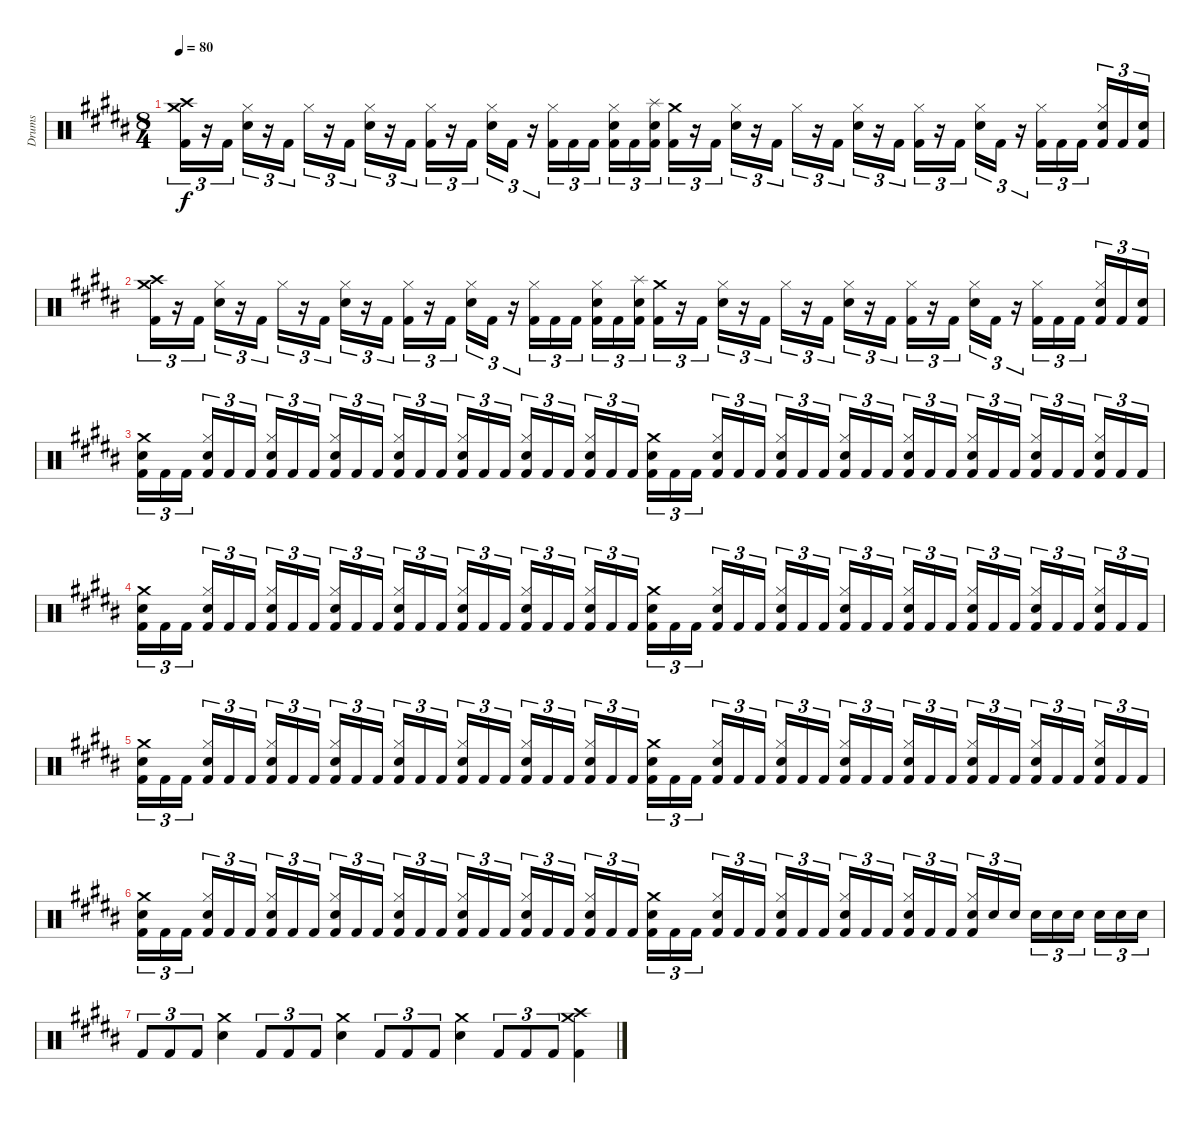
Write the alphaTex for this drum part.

\track ("Drums" "Drums") {instrument percussion}
\staff {score}
\articulation defaults
\ts (8 4)
\tempo 80
\clef neutral
\ks g#minor
("Crash medium (hit)" "Crash high (hit)" "Kick (hit) 2").16{tu (3 2) dy f} r.16{tu (3 2)} "Kick (hit) 2".16{tu (3 2)} ("Hi-Hat (closed)" "Snare (hit) 2").16{tu (3 2)} r.16{tu (3 2)} "Kick (hit) 2".16{tu (3 2)} "Hi-Hat (closed)".16{tu (3 2)} r.16{tu (3 2)} "Kick (hit) 2".16{tu (3 2)} ("Hi-Hat (closed)" "Snare (hit) 2").16{tu (3 2)} r.16{tu (3 2)} "Kick (hit) 2".16{tu (3 2)} ("Hi-Hat (closed)" "Kick (hit) 2").16{tu (3 2)} r.16{tu (3 2)} "Kick (hit) 2".16{tu (3 2)} ("Hi-Hat (closed)" "Snare (hit) 2").16{tu (3 2)} "Kick (hit) 2".16{tu (3 2)} r.16{tu (3 2)} ("Hi-Hat (closed)" "Kick (hit) 2").16{tu (3 2)} "Kick (hit) 2".16{tu (3 2)} "Kick (hit) 2".16{tu (3 2)} ("Hi-Hat (closed)" "Snare (hit) 2" "Kick (hit) 2").16{tu (3 2)} "Kick (hit) 2".16{tu (3 2)} ("Splash (hit)" "Snare (hit) 2" "Kick (hit) 2").16{tu (3 2)} ("Crash medium (hit)" "Kick (hit) 2").16{tu (3 2)} r.16{tu (3 2)} "Kick (hit) 2".16{tu (3 2)} ("Hi-Hat (closed)" "Snare (hit) 2").16{tu (3 2)} r.16{tu (3 2)} "Kick (hit) 2".16{tu (3 2)} "Hi-Hat (closed)".16{tu (3 2)} r.16{tu (3 2)} "Kick (hit) 2".16{tu (3 2)} ("Hi-Hat (closed)" "Snare (hit) 2").16{tu (3 2)} r.16{tu (3 2)} "Kick (hit) 2".16{tu (3 2)} ("Hi-Hat (closed)" "Kick (hit) 2").16{tu (3 2)} r.16{tu (3 2)} "Kick (hit) 2".16{tu (3 2)} ("Hi-Hat (closed)" "Snare (hit) 2").16{tu (3 2)} "Kick (hit) 2".16{tu (3 2)} r.16{tu (3 2)} ("Hi-Hat (closed)" "Kick (hit) 2").16{tu (3 2)} "Kick (hit) 2".16{tu (3 2)} "Kick (hit) 2".16{tu (3 2)} ("Hi-Hat (closed)" "Snare (hit) 2" "Kick (hit) 2").16{tu (3 2)} "Kick (hit) 2".16{tu (3 2)} ("Snare (hit) 2" "Kick (hit) 2").16{tu (3 2)} |
("Crash medium (hit)" "Crash high (hit)" "Kick (hit) 2").16{tu (3 2)} r.16{tu (3 2)} "Kick (hit) 2".16{tu (3 2)} ("Hi-Hat (closed)" "Snare (hit) 2").16{tu (3 2)} r.16{tu (3 2)} "Kick (hit) 2".16{tu (3 2)} "Hi-Hat (closed)".16{tu (3 2)} r.16{tu (3 2)} "Kick (hit) 2".16{tu (3 2)} ("Hi-Hat (closed)" "Snare (hit) 2").16{tu (3 2)} r.16{tu (3 2)} "Kick (hit) 2".16{tu (3 2)} ("Hi-Hat (closed)" "Kick (hit) 2").16{tu (3 2)} r.16{tu (3 2)} "Kick (hit) 2".16{tu (3 2)} ("Hi-Hat (closed)" "Snare (hit) 2").16{tu (3 2)} "Kick (hit) 2".16{tu (3 2)} r.16{tu (3 2)} ("Hi-Hat (closed)" "Kick (hit) 2").16{tu (3 2)} "Kick (hit) 2".16{tu (3 2)} "Kick (hit) 2".16{tu (3 2)} ("Hi-Hat (closed)" "Snare (hit) 2" "Kick (hit) 2").16{tu (3 2)} "Kick (hit) 2".16{tu (3 2)} ("Splash (hit)" "Snare (hit) 2" "Kick (hit) 2").16{tu (3 2)} ("Crash medium (hit)" "Kick (hit) 2").16{tu (3 2)} r.16{tu (3 2)} "Kick (hit) 2".16{tu (3 2)} ("Hi-Hat (closed)" "Snare (hit) 2").16{tu (3 2)} r.16{tu (3 2)} "Kick (hit) 2".16{tu (3 2)} "Hi-Hat (closed)".16{tu (3 2)} r.16{tu (3 2)} "Kick (hit) 2".16{tu (3 2)} ("Hi-Hat (closed)" "Snare (hit) 2").16{tu (3 2)} r.16{tu (3 2)} "Kick (hit) 2".16{tu (3 2)} ("Hi-Hat (closed)" "Kick (hit) 2").16{tu (3 2)} r.16{tu (3 2)} "Kick (hit) 2".16{tu (3 2)} ("Hi-Hat (closed)" "Snare (hit) 2").16{tu (3 2)} "Kick (hit) 2".16{tu (3 2)} r.16{tu (3 2)} ("Hi-Hat (closed)" "Kick (hit) 2").16{tu (3 2)} "Kick (hit) 2".16{tu (3 2)} "Kick (hit) 2".16{tu (3 2)} ("Hi-Hat (closed)" "Snare (hit) 2" "Kick (hit) 2").16{tu (3 2)} "Kick (hit) 2".16{tu (3 2)} ("Snare (hit) 2" "Kick (hit) 2").16{tu (3 2)} |
("Crash medium (hit)" "Snare (hit) 2" "Kick (hit) 2").16{tu (3 2)} "Kick (hit) 2".16{tu (3 2)} "Kick (hit) 2".16{tu (3 2)} ("Hi-Hat (closed)" "Snare (hit) 2" "Kick (hit) 2").16{tu (3 2)} "Kick (hit) 2".16{tu (3 2)} "Kick (hit) 2".16{tu (3 2)} ("Hi-Hat (closed)" "Snare (hit) 2" "Kick (hit) 2").16{tu (3 2)} "Kick (hit) 2".16{tu (3 2)} "Kick (hit) 2".16{tu (3 2)} ("Hi-Hat (closed)" "Snare (hit) 2" "Kick (hit) 2").16{tu (3 2)} "Kick (hit) 2".16{tu (3 2)} "Kick (hit) 2".16{tu (3 2)} ("Hi-Hat (closed)" "Snare (hit) 2" "Kick (hit) 2").16{tu (3 2)} "Kick (hit) 2".16{tu (3 2)} "Kick (hit) 2".16{tu (3 2)} ("Hi-Hat (closed)" "Snare (hit) 2" "Kick (hit) 2").16{tu (3 2)} "Kick (hit) 2".16{tu (3 2)} "Kick (hit) 2".16{tu (3 2)} ("Hi-Hat (closed)" "Snare (hit) 2" "Kick (hit) 2").16{tu (3 2)} "Kick (hit) 2".16{tu (3 2)} "Kick (hit) 2".16{tu (3 2)} ("Hi-Hat (closed)" "Snare (hit) 2" "Kick (hit) 2").16{tu (3 2)} "Kick (hit) 2".16{tu (3 2)} "Kick (hit) 2".16{tu (3 2)} ("Crash medium (hit)" "Snare (hit) 2" "Kick (hit) 2").16{tu (3 2)} "Kick (hit) 2".16{tu (3 2)} "Kick (hit) 2".16{tu (3 2)} ("Hi-Hat (closed)" "Snare (hit) 2" "Kick (hit) 2").16{tu (3 2)} "Kick (hit) 2".16{tu (3 2)} "Kick (hit) 2".16{tu (3 2)} ("Hi-Hat (closed)" "Snare (hit) 2" "Kick (hit) 2").16{tu (3 2)} "Kick (hit) 2".16{tu (3 2)} "Kick (hit) 2".16{tu (3 2)} ("Hi-Hat (closed)" "Snare (hit) 2" "Kick (hit) 2").16{tu (3 2)} "Kick (hit) 2".16{tu (3 2)} "Kick (hit) 2".16{tu (3 2)} ("Hi-Hat (closed)" "Snare (hit) 2" "Kick (hit) 2").16{tu (3 2)} "Kick (hit) 2".16{tu (3 2)} "Kick (hit) 2".16{tu (3 2)} ("Hi-Hat (closed)" "Snare (hit) 2" "Kick (hit) 2").16{tu (3 2)} "Kick (hit) 2".16{tu (3 2)} "Kick (hit) 2".16{tu (3 2)} ("Hi-Hat (closed)" "Snare (hit) 2" "Kick (hit) 2").16{tu (3 2)} "Kick (hit) 2".16{tu (3 2)} "Kick (hit) 2".16{tu (3 2)} ("Hi-Hat (closed)" "Snare (hit) 2" "Kick (hit) 2").16{tu (3 2)} "Kick (hit) 2".16{tu (3 2)} "Kick (hit) 2".16{tu (3 2)} |
("Crash medium (hit)" "Snare (hit) 2" "Kick (hit) 2").16{tu (3 2)} "Kick (hit) 2".16{tu (3 2)} "Kick (hit) 2".16{tu (3 2)} ("Hi-Hat (closed)" "Snare (hit) 2" "Kick (hit) 2").16{tu (3 2)} "Kick (hit) 2".16{tu (3 2)} "Kick (hit) 2".16{tu (3 2)} ("Hi-Hat (closed)" "Snare (hit) 2" "Kick (hit) 2").16{tu (3 2)} "Kick (hit) 2".16{tu (3 2)} "Kick (hit) 2".16{tu (3 2)} ("Hi-Hat (closed)" "Snare (hit) 2" "Kick (hit) 2").16{tu (3 2)} "Kick (hit) 2".16{tu (3 2)} "Kick (hit) 2".16{tu (3 2)} ("Hi-Hat (closed)" "Snare (hit) 2" "Kick (hit) 2").16{tu (3 2)} "Kick (hit) 2".16{tu (3 2)} "Kick (hit) 2".16{tu (3 2)} ("Hi-Hat (closed)" "Snare (hit) 2" "Kick (hit) 2").16{tu (3 2)} "Kick (hit) 2".16{tu (3 2)} "Kick (hit) 2".16{tu (3 2)} ("Hi-Hat (closed)" "Snare (hit) 2" "Kick (hit) 2").16{tu (3 2)} "Kick (hit) 2".16{tu (3 2)} "Kick (hit) 2".16{tu (3 2)} ("Hi-Hat (closed)" "Snare (hit) 2" "Kick (hit) 2").16{tu (3 2)} "Kick (hit) 2".16{tu (3 2)} "Kick (hit) 2".16{tu (3 2)} ("Crash medium (hit)" "Snare (hit) 2" "Kick (hit) 2").16{tu (3 2)} "Kick (hit) 2".16{tu (3 2)} "Kick (hit) 2".16{tu (3 2)} ("Hi-Hat (closed)" "Snare (hit) 2" "Kick (hit) 2").16{tu (3 2)} "Kick (hit) 2".16{tu (3 2)} "Kick (hit) 2".16{tu (3 2)} ("Hi-Hat (closed)" "Snare (hit) 2" "Kick (hit) 2").16{tu (3 2)} "Kick (hit) 2".16{tu (3 2)} "Kick (hit) 2".16{tu (3 2)} ("Hi-Hat (closed)" "Snare (hit) 2" "Kick (hit) 2").16{tu (3 2)} "Kick (hit) 2".16{tu (3 2)} "Kick (hit) 2".16{tu (3 2)} ("Hi-Hat (closed)" "Snare (hit) 2" "Kick (hit) 2").16{tu (3 2)} "Kick (hit) 2".16{tu (3 2)} "Kick (hit) 2".16{tu (3 2)} ("Hi-Hat (closed)" "Snare (hit) 2" "Kick (hit) 2").16{tu (3 2)} "Kick (hit) 2".16{tu (3 2)} "Kick (hit) 2".16{tu (3 2)} ("Hi-Hat (closed)" "Snare (hit) 2" "Kick (hit) 2").16{tu (3 2)} "Kick (hit) 2".16{tu (3 2)} "Kick (hit) 2".16{tu (3 2)} ("Hi-Hat (closed)" "Snare (hit) 2" "Kick (hit) 2").16{tu (3 2)} "Kick (hit) 2".16{tu (3 2)} "Kick (hit) 2".16{tu (3 2)} |
("Crash medium (hit)" "Snare (hit) 2" "Kick (hit) 2").16{tu (3 2)} "Kick (hit) 2".16{tu (3 2)} "Kick (hit) 2".16{tu (3 2)} ("Hi-Hat (closed)" "Snare (hit) 2" "Kick (hit) 2").16{tu (3 2)} "Kick (hit) 2".16{tu (3 2)} "Kick (hit) 2".16{tu (3 2)} ("Hi-Hat (closed)" "Snare (hit) 2" "Kick (hit) 2").16{tu (3 2)} "Kick (hit) 2".16{tu (3 2)} "Kick (hit) 2".16{tu (3 2)} ("Hi-Hat (closed)" "Snare (hit) 2" "Kick (hit) 2").16{tu (3 2)} "Kick (hit) 2".16{tu (3 2)} "Kick (hit) 2".16{tu (3 2)} ("Hi-Hat (closed)" "Snare (hit) 2" "Kick (hit) 2").16{tu (3 2)} "Kick (hit) 2".16{tu (3 2)} "Kick (hit) 2".16{tu (3 2)} ("Hi-Hat (closed)" "Snare (hit) 2" "Kick (hit) 2").16{tu (3 2)} "Kick (hit) 2".16{tu (3 2)} "Kick (hit) 2".16{tu (3 2)} ("Hi-Hat (closed)" "Snare (hit) 2" "Kick (hit) 2").16{tu (3 2)} "Kick (hit) 2".16{tu (3 2)} "Kick (hit) 2".16{tu (3 2)} ("Hi-Hat (closed)" "Snare (hit) 2" "Kick (hit) 2").16{tu (3 2)} "Kick (hit) 2".16{tu (3 2)} "Kick (hit) 2".16{tu (3 2)} ("Crash medium (hit)" "Snare (hit) 2" "Kick (hit) 2").16{tu (3 2)} "Kick (hit) 2".16{tu (3 2)} "Kick (hit) 2".16{tu (3 2)} ("Hi-Hat (closed)" "Snare (hit) 2" "Kick (hit) 2").16{tu (3 2)} "Kick (hit) 2".16{tu (3 2)} "Kick (hit) 2".16{tu (3 2)} ("Hi-Hat (closed)" "Snare (hit) 2" "Kick (hit) 2").16{tu (3 2)} "Kick (hit) 2".16{tu (3 2)} "Kick (hit) 2".16{tu (3 2)} ("Hi-Hat (closed)" "Snare (hit) 2" "Kick (hit) 2").16{tu (3 2)} "Kick (hit) 2".16{tu (3 2)} "Kick (hit) 2".16{tu (3 2)} ("Hi-Hat (closed)" "Snare (hit) 2" "Kick (hit) 2").16{tu (3 2)} "Kick (hit) 2".16{tu (3 2)} "Kick (hit) 2".16{tu (3 2)} ("Hi-Hat (closed)" "Snare (hit) 2" "Kick (hit) 2").16{tu (3 2)} "Kick (hit) 2".16{tu (3 2)} "Kick (hit) 2".16{tu (3 2)} ("Hi-Hat (closed)" "Snare (hit) 2" "Kick (hit) 2").16{tu (3 2)} "Kick (hit) 2".16{tu (3 2)} "Kick (hit) 2".16{tu (3 2)} ("Hi-Hat (closed)" "Snare (hit) 2" "Kick (hit) 2").16{tu (3 2)} "Kick (hit) 2".16{tu (3 2)} "Kick (hit) 2".16{tu (3 2)} |
("Crash medium (hit)" "Snare (hit) 2" "Kick (hit) 2").16{tu (3 2)} "Kick (hit) 2".16{tu (3 2)} "Kick (hit) 2".16{tu (3 2)} ("Hi-Hat (closed)" "Snare (hit) 2" "Kick (hit) 2").16{tu (3 2)} "Kick (hit) 2".16{tu (3 2)} "Kick (hit) 2".16{tu (3 2)} ("Hi-Hat (closed)" "Snare (hit) 2" "Kick (hit) 2").16{tu (3 2)} "Kick (hit) 2".16{tu (3 2)} "Kick (hit) 2".16{tu (3 2)} ("Hi-Hat (closed)" "Snare (hit) 2" "Kick (hit) 2").16{tu (3 2)} "Kick (hit) 2".16{tu (3 2)} "Kick (hit) 2".16{tu (3 2)} ("Hi-Hat (closed)" "Snare (hit) 2" "Kick (hit) 2").16{tu (3 2)} "Kick (hit) 2".16{tu (3 2)} "Kick (hit) 2".16{tu (3 2)} ("Hi-Hat (closed)" "Snare (hit) 2" "Kick (hit) 2").16{tu (3 2)} "Kick (hit) 2".16{tu (3 2)} "Kick (hit) 2".16{tu (3 2)} ("Hi-Hat (closed)" "Snare (hit) 2" "Kick (hit) 2").16{tu (3 2)} "Kick (hit) 2".16{tu (3 2)} "Kick (hit) 2".16{tu (3 2)} ("Hi-Hat (closed)" "Snare (hit) 2" "Kick (hit) 2").16{tu (3 2)} "Kick (hit) 2".16{tu (3 2)} "Kick (hit) 2".16{tu (3 2)} ("Crash medium (hit)" "Snare (hit) 2" "Kick (hit) 2").16{tu (3 2)} "Kick (hit) 2".16{tu (3 2)} "Kick (hit) 2".16{tu (3 2)} ("Hi-Hat (closed)" "Snare (hit) 2" "Kick (hit) 2").16{tu (3 2)} "Kick (hit) 2".16{tu (3 2)} "Kick (hit) 2".16{tu (3 2)} ("Hi-Hat (closed)" "Snare (hit) 2" "Kick (hit) 2").16{tu (3 2)} "Kick (hit) 2".16{tu (3 2)} "Kick (hit) 2".16{tu (3 2)} ("Hi-Hat (closed)" "Snare (hit) 2" "Kick (hit) 2").16{tu (3 2)} "Kick (hit) 2".16{tu (3 2)} "Kick (hit) 2".16{tu (3 2)} ("Hi-Hat (closed)" "Snare (hit) 2" "Kick (hit) 2").16{tu (3 2)} "Kick (hit) 2".16{tu (3 2)} "Kick (hit) 2".16{tu (3 2)} ("Hi-Hat (closed)" "Snare (hit) 2" "Kick (hit) 2").16{tu (3 2)} "Snare (hit) 2".16{tu (3 2)} "Snare (hit) 2".16{tu (3 2)} "Snare (hit) 2".16{tu (3 2)} "Snare (hit) 2".16{tu (3 2)} "Snare (hit) 2".16{tu (3 2)} "Snare (hit) 2".16{tu (3 2)} "Snare (hit) 2".16{tu (3 2)} "Snare (hit) 2".16{tu (3 2)} |
"Kick (hit) 2".8{tu (3 2)} "Kick (hit) 2".8{tu (3 2)} "Kick (hit) 2".8{tu (3 2)} ("Crash medium (hit)" "Snare (hit) 2").4 "Kick (hit) 2".8{tu (3 2)} "Kick (hit) 2".8{tu (3 2)} "Kick (hit) 2".8{tu (3 2)} ("Crash medium (hit)" "Snare (hit) 2").4 "Kick (hit) 2".8{tu (3 2)} "Kick (hit) 2".8{tu (3 2)} "Kick (hit) 2".8{tu (3 2)} ("Crash medium (hit)" "Snare (hit) 2").4 "Kick (hit) 2".8{tu (3 2)} "Kick (hit) 2".8{tu (3 2)} "Kick (hit) 2".8{tu (3 2)} ("Crash medium (hit)" "Crash high (hit)" "Kick (hit) 2").4
